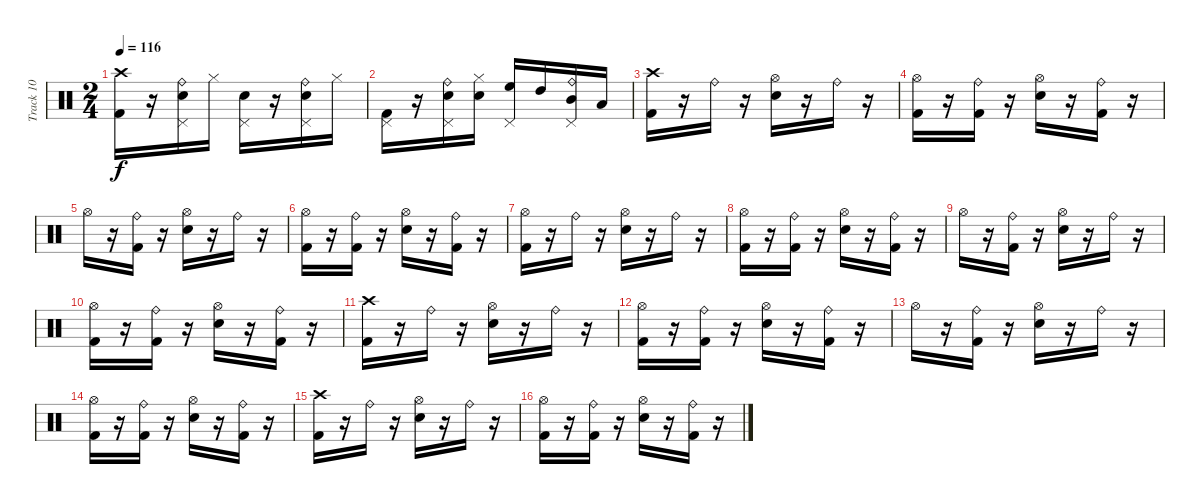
\track ("Track 10" "Track 10") {instrument percussion}
\staff {score}
\articulation defaults
\ts (2 4)
\tempo 116
\clef neutral
\ks c
("Kick (hit) 2" "Crash high (hit)").16{dy f} r.16 ("Pedal Hi-Hat (hit)" "Electric Snare (hit)" "Ride (bell)").16 "Hi-Hat (closed)".16 ("Pedal Hi-Hat (hit)" "Electric Snare (hit)").16 r.16 ("Electric Snare (hit)" "Pedal Hi-Hat (hit)" "Ride (bell)").16 "Hi-Hat (closed)".16 |
("Pedal Hi-Hat (hit)" "Kick (hit) 2").16 r.16 ("Pedal Hi-Hat (hit)" "Ride (bell)" "Electric Snare (hit)").16 ("Hi-Hat (closed)" "Electric Snare (hit)").16 ("Pedal Hi-Hat (hit)" "High Floor Tom (hit)").16 "High Tom (hit)".16 ("Mid Tom (hit)" "Ride (bell)" "Pedal Hi-Hat (hit)").16 "Low Tom (hit)".16 |
("Crash high (hit)" "Kick (hit) 2").16 r.16 "Ride (bell)".16 r.16 ("Hi-Hat (open)" "Electric Snare (hit)").16 r.16 "Ride (bell)".16 r.16 |
("Kick (hit) 2" "Hi-Hat (open)").16 r.16 ("Ride (bell)" "Kick (hit) 2").16 r.16 ("Hi-Hat (open)" "Electric Snare (hit)").16 r.16 ("Kick (hit) 2" "Ride (bell)").16 r.16 |
"Hi-Hat (open)".16 r.16 ("Kick (hit) 2" "Ride (bell)").16 r.16 ("Hi-Hat (open)" "Electric Snare (hit)").16 r.16 "Ride (bell)".16 r.16 |
("Hi-Hat (open)" "Kick (hit) 2").16 r.16 ("Ride (bell)" "Kick (hit) 2").16 r.16 ("Hi-Hat (open)" "Electric Snare (hit)").16 r.16 ("Ride (bell)" "Kick (hit) 2").16 r.16 |
("Kick (hit) 2" "Hi-Hat (open)").16 r.16 "Ride (bell)".16 r.16 ("Hi-Hat (open)" "Electric Snare (hit)").16 r.16 "Ride (bell)".16 r.16 |
("Hi-Hat (open)" "Kick (hit) 2").16 r.16 ("Ride (bell)" "Kick (hit) 2").16 r.16 ("Electric Snare (hit)" "Hi-Hat (open)").16 r.16 ("Kick (hit) 2" "Ride (bell)").16 r.16 |
"Hi-Hat (open)".16 r.16 ("Kick (hit) 2" "Ride (bell)").16 r.16 ("Electric Snare (hit)" "Hi-Hat (open)").16 r.16 "Ride (bell)".16 r.16 |
("Hi-Hat (open)" "Kick (hit) 2").16 r.16 ("Ride (bell)" "Kick (hit) 2").16 r.16 ("Electric Snare (hit)" "Hi-Hat (open)").16 r.16 ("Ride (bell)" "Kick (hit) 2").16 r.16 |
("Crash high (hit)" "Kick (hit) 2").16 r.16 "Ride (bell)".16 r.16 ("Hi-Hat (open)" "Electric Snare (hit)").16 r.16 "Ride (bell)".16 r.16 |
("Hi-Hat (open)" "Kick (hit) 2").16 r.16 ("Ride (bell)" "Kick (hit) 2").16 r.16 ("Hi-Hat (open)" "Electric Snare (hit)").16 r.16 ("Kick (hit) 2" "Ride (bell)").16 r.16 |
"Hi-Hat (open)".16 r.16 ("Kick (hit) 2" "Ride (bell)").16 r.16 ("Electric Snare (hit)" "Hi-Hat (open)").16 r.16 "Ride (bell)".16 r.16 |
("Kick (hit) 2" "Hi-Hat (open)").16 r.16 ("Ride (bell)" "Kick (hit) 2").16 r.16 ("Electric Snare (hit)" "Hi-Hat (open)").16 r.16 ("Ride (bell)" "Kick (hit) 2").16 r.16 |
("Crash high (hit)" "Kick (hit) 2").16 r.16 "Ride (bell)".16 r.16 ("Electric Snare (hit)" "Hi-Hat (open)").16 r.16 "Ride (bell)".16 r.16 |
("Kick (hit) 2" "Hi-Hat (open)").16 r.16 ("Ride (bell)" "Kick (hit) 2").16 r.16 ("Electric Snare (hit)" "Hi-Hat (open)").16 r.16 ("Kick (hit) 2" "Ride (bell)").16 r.16
